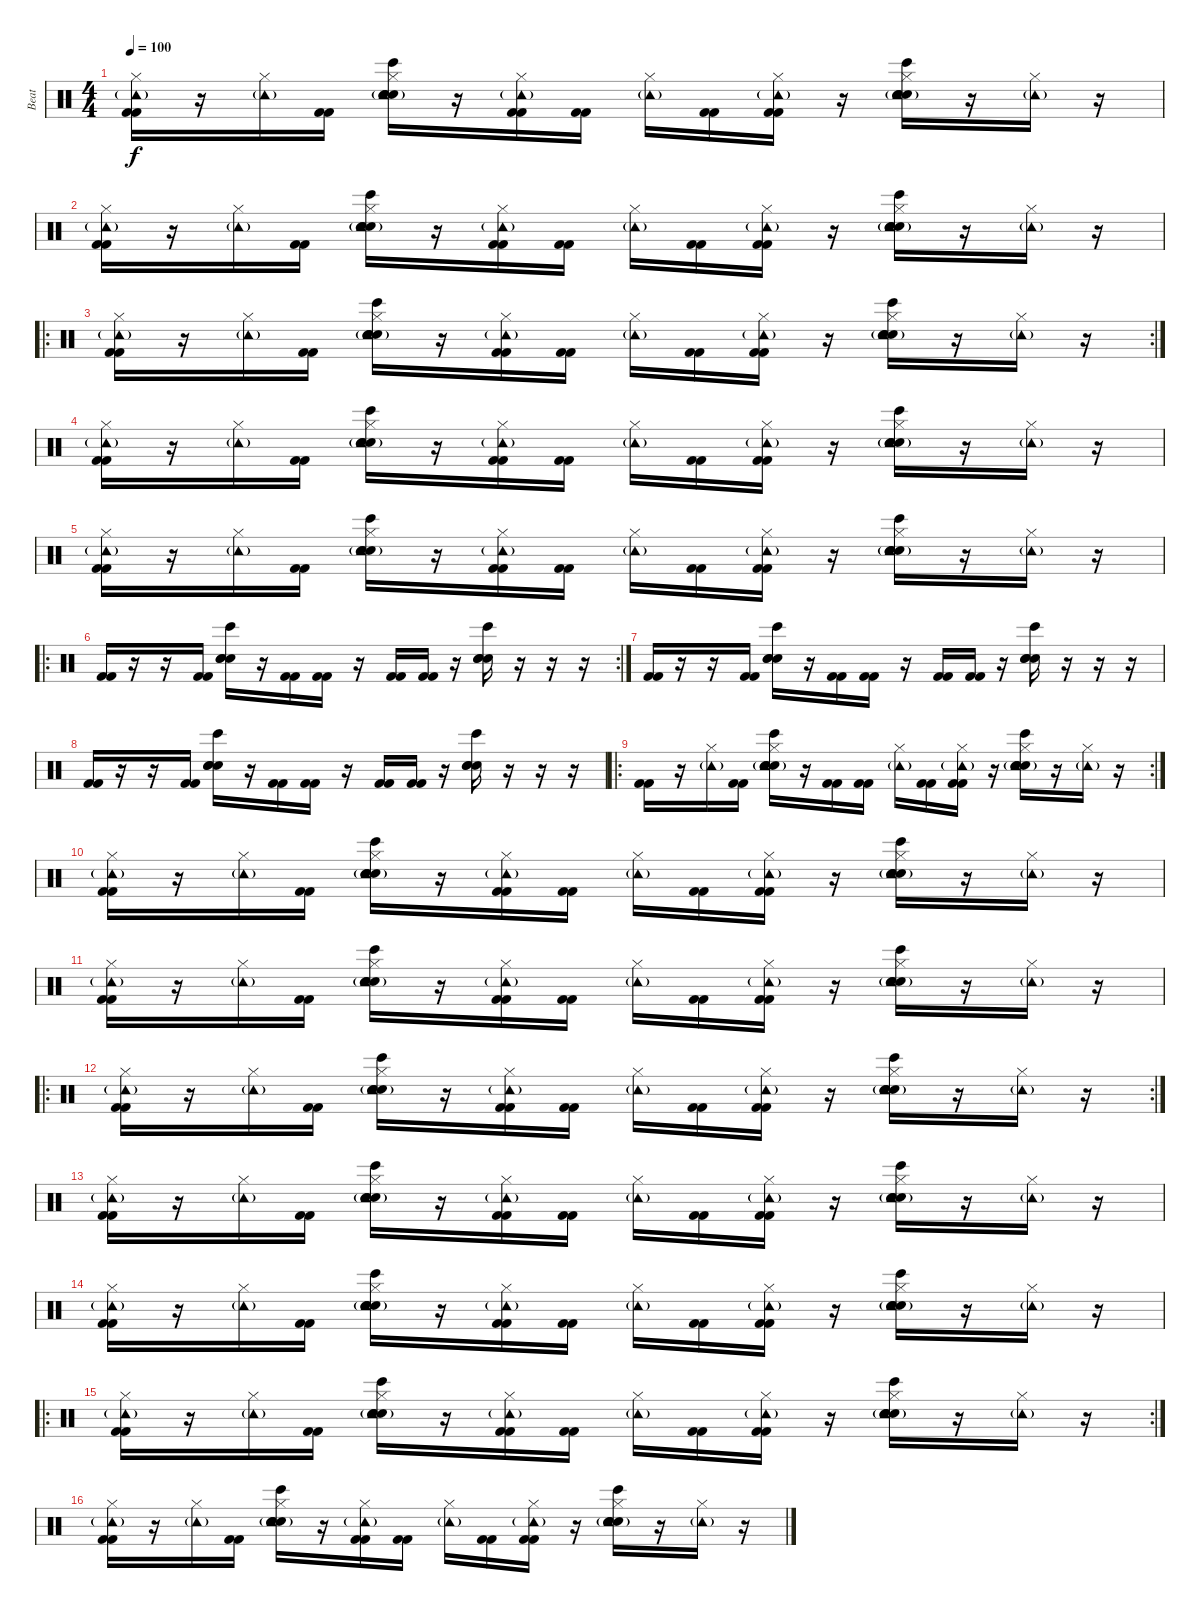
\track ("Beat" "Beat") {instrument percussion}
\staff {score}
\articulation defaults
\ts (4 4)
\tempo 100
\clef neutral
\ks c
("Hi-Hat (closed)" "Tambourine (hit)"{g} "Kick (hit) 2" "Kick (hit) 2").16{dy f} r.16 ("Hi-Hat (closed)" "Tambourine (hit)"{g}).16 ("Kick (hit) 2" "Kick (hit) 2").16 ("Electric Snare (hit)" "Hi-Hat (closed)" "Tambourine (hit)"{g} "Hand Clap (hit)" "Bongo High (hit)" "Hand Clap (hit)").16 r.16 ("Hi-Hat (closed)" "Tambourine (hit)"{g} "Kick (hit) 2" "Kick (hit) 2").16 ("Kick (hit) 2" "Kick (hit) 2").16 ("Hi-Hat (closed)" "Tambourine (hit)"{g}).16 ("Kick (hit) 2" "Kick (hit) 2").16 ("Hi-Hat (closed)" "Tambourine (hit)"{g} "Kick (hit) 2" "Kick (hit) 2").16 r.16 ("Electric Snare (hit)" "Hi-Hat (closed)" "Tambourine (hit)"{g} "Hand Clap (hit)" "Bongo High (hit)" "Hand Clap (hit)").16 r.16 ("Hi-Hat (closed)" "Tambourine (hit)"{g}).16 r.16 |
("Hi-Hat (closed)" "Tambourine (hit)"{g} "Kick (hit) 2" "Kick (hit) 2").16 r.16 ("Hi-Hat (closed)" "Tambourine (hit)"{g}).16 ("Kick (hit) 2" "Kick (hit) 2").16 ("Electric Snare (hit)" "Hi-Hat (closed)" "Tambourine (hit)"{g} "Hand Clap (hit)" "Bongo High (hit)" "Hand Clap (hit)").16 r.16 ("Hi-Hat (closed)" "Tambourine (hit)"{g} "Kick (hit) 2" "Kick (hit) 2").16 ("Kick (hit) 2" "Kick (hit) 2").16 ("Hi-Hat (closed)" "Tambourine (hit)"{g}).16 ("Kick (hit) 2" "Kick (hit) 2").16 ("Hi-Hat (closed)" "Tambourine (hit)"{g} "Kick (hit) 2" "Kick (hit) 2").16 r.16 ("Electric Snare (hit)" "Hi-Hat (closed)" "Tambourine (hit)"{g} "Hand Clap (hit)" "Bongo High (hit)" "Hand Clap (hit)").16 r.16 ("Hi-Hat (closed)" "Tambourine (hit)"{g}).16 r.16 |
\ro
\rc 2
("Hi-Hat (closed)" "Tambourine (hit)"{g} "Kick (hit) 2" "Kick (hit) 2").16 r.16 ("Hi-Hat (closed)" "Tambourine (hit)"{g}).16 ("Kick (hit) 2" "Kick (hit) 2").16 ("Electric Snare (hit)" "Hi-Hat (closed)" "Tambourine (hit)"{g} "Hand Clap (hit)" "Bongo High (hit)" "Hand Clap (hit)").16 r.16 ("Hi-Hat (closed)" "Tambourine (hit)"{g} "Kick (hit) 2" "Kick (hit) 2").16 ("Kick (hit) 2" "Kick (hit) 2").16 ("Hi-Hat (closed)" "Tambourine (hit)"{g}).16 ("Kick (hit) 2" "Kick (hit) 2").16 ("Hi-Hat (closed)" "Tambourine (hit)"{g} "Kick (hit) 2" "Kick (hit) 2").16 r.16 ("Electric Snare (hit)" "Hi-Hat (closed)" "Tambourine (hit)"{g} "Hand Clap (hit)" "Bongo High (hit)" "Hand Clap (hit)").16 r.16 ("Hi-Hat (closed)" "Tambourine (hit)"{g}).16 r.16 |
("Hi-Hat (closed)" "Tambourine (hit)"{g} "Kick (hit) 2" "Kick (hit) 2").16 r.16 ("Hi-Hat (closed)" "Tambourine (hit)"{g}).16 ("Kick (hit) 2" "Kick (hit) 2").16 ("Electric Snare (hit)" "Hi-Hat (closed)" "Tambourine (hit)"{g} "Hand Clap (hit)" "Bongo High (hit)" "Hand Clap (hit)").16 r.16 ("Hi-Hat (closed)" "Tambourine (hit)"{g} "Kick (hit) 2" "Kick (hit) 2").16 ("Kick (hit) 2" "Kick (hit) 2").16 ("Hi-Hat (closed)" "Tambourine (hit)"{g}).16 ("Kick (hit) 2" "Kick (hit) 2").16 ("Hi-Hat (closed)" "Tambourine (hit)"{g} "Kick (hit) 2" "Kick (hit) 2").16 r.16 ("Electric Snare (hit)" "Hi-Hat (closed)" "Tambourine (hit)"{g} "Hand Clap (hit)" "Bongo High (hit)" "Hand Clap (hit)").16 r.16 ("Hi-Hat (closed)" "Tambourine (hit)"{g}).16 r.16 |
("Hi-Hat (closed)" "Tambourine (hit)"{g} "Kick (hit) 2" "Kick (hit) 2").16 r.16 ("Hi-Hat (closed)" "Tambourine (hit)"{g}).16 ("Kick (hit) 2" "Kick (hit) 2").16 ("Electric Snare (hit)" "Hi-Hat (closed)" "Tambourine (hit)"{g} "Hand Clap (hit)" "Bongo High (hit)" "Hand Clap (hit)").16 r.16 ("Hi-Hat (closed)" "Tambourine (hit)"{g} "Kick (hit) 2" "Kick (hit) 2").16 ("Kick (hit) 2" "Kick (hit) 2").16 ("Hi-Hat (closed)" "Tambourine (hit)"{g}).16 ("Kick (hit) 2" "Kick (hit) 2").16 ("Hi-Hat (closed)" "Tambourine (hit)"{g} "Kick (hit) 2" "Kick (hit) 2").16 r.16 ("Electric Snare (hit)" "Hi-Hat (closed)" "Tambourine (hit)"{g} "Hand Clap (hit)" "Bongo High (hit)" "Hand Clap (hit)").16 r.16 ("Hi-Hat (closed)" "Tambourine (hit)"{g}).16 r.16 |
\ro
\rc 2
("Kick (hit) 2" "Kick (hit) 2").16 r.16 r.16 ("Kick (hit) 2" "Kick (hit) 2").16 ("Electric Snare (hit)" "Hand Clap (hit)" "Bongo High (hit)" "Hand Clap (hit)").16 r.16 ("Kick (hit) 2" "Kick (hit) 2").16 ("Kick (hit) 2" "Kick (hit) 2").16 r.16 ("Kick (hit) 2" "Kick (hit) 2").16 ("Kick (hit) 2" "Kick (hit) 2").16 r.16 ("Electric Snare (hit)" "Hand Clap (hit)" "Bongo High (hit)" "Hand Clap (hit)").16 r.16 r.16 r.16 |
("Kick (hit) 2" "Kick (hit) 2").16 r.16 r.16 ("Kick (hit) 2" "Kick (hit) 2").16 ("Electric Snare (hit)" "Hand Clap (hit)" "Bongo High (hit)" "Hand Clap (hit)").16 r.16 ("Kick (hit) 2" "Kick (hit) 2").16 ("Kick (hit) 2" "Kick (hit) 2").16 r.16 ("Kick (hit) 2" "Kick (hit) 2").16 ("Kick (hit) 2" "Kick (hit) 2").16 r.16 ("Electric Snare (hit)" "Hand Clap (hit)" "Bongo High (hit)" "Hand Clap (hit)").16 r.16 r.16 r.16 |
("Kick (hit) 2" "Kick (hit) 2").16 r.16 r.16 ("Kick (hit) 2" "Kick (hit) 2").16 ("Electric Snare (hit)" "Hand Clap (hit)" "Bongo High (hit)" "Hand Clap (hit)").16 r.16 ("Kick (hit) 2" "Kick (hit) 2").16 ("Kick (hit) 2" "Kick (hit) 2").16 r.16 ("Kick (hit) 2" "Kick (hit) 2").16 ("Kick (hit) 2" "Kick (hit) 2").16 r.16 ("Electric Snare (hit)" "Hand Clap (hit)" "Bongo High (hit)" "Hand Clap (hit)").16 r.16 r.16 r.16 |
\ro
\rc 2
("Kick (hit) 2" "Kick (hit) 2").16 r.16 ("Hi-Hat (closed)" "Tambourine (hit)"{g}).16 ("Kick (hit) 2" "Kick (hit) 2").16 ("Electric Snare (hit)" "Hi-Hat (closed)" "Tambourine (hit)"{g} "Hand Clap (hit)" "Bongo High (hit)" "Hand Clap (hit)").16 r.16 ("Kick (hit) 2" "Kick (hit) 2").16 ("Kick (hit) 2" "Kick (hit) 2").16 ("Hi-Hat (closed)" "Tambourine (hit)"{g}).16 ("Kick (hit) 2" "Kick (hit) 2").16 ("Hi-Hat (closed)" "Tambourine (hit)"{g} "Kick (hit) 2" "Kick (hit) 2").16 r.16 ("Electric Snare (hit)" "Hi-Hat (closed)" "Tambourine (hit)"{g} "Hand Clap (hit)" "Bongo High (hit)" "Hand Clap (hit)").16 r.16 ("Hi-Hat (closed)" "Tambourine (hit)"{g}).16 r.16 |
("Hi-Hat (closed)" "Tambourine (hit)"{g} "Kick (hit) 2" "Kick (hit) 2").16 r.16 ("Hi-Hat (closed)" "Tambourine (hit)"{g}).16 ("Kick (hit) 2" "Kick (hit) 2").16 ("Electric Snare (hit)" "Hi-Hat (closed)" "Tambourine (hit)"{g} "Hand Clap (hit)" "Bongo High (hit)" "Hand Clap (hit)").16 r.16 ("Hi-Hat (closed)" "Tambourine (hit)"{g} "Kick (hit) 2" "Kick (hit) 2").16 ("Kick (hit) 2" "Kick (hit) 2").16 ("Hi-Hat (closed)" "Tambourine (hit)"{g}).16 ("Kick (hit) 2" "Kick (hit) 2").16 ("Hi-Hat (closed)" "Tambourine (hit)"{g} "Kick (hit) 2" "Kick (hit) 2").16 r.16 ("Electric Snare (hit)" "Hi-Hat (closed)" "Tambourine (hit)"{g} "Hand Clap (hit)" "Bongo High (hit)" "Hand Clap (hit)").16 r.16 ("Hi-Hat (closed)" "Tambourine (hit)"{g}).16 r.16 |
("Hi-Hat (closed)" "Tambourine (hit)"{g} "Kick (hit) 2" "Kick (hit) 2").16 r.16 ("Hi-Hat (closed)" "Tambourine (hit)"{g}).16 ("Kick (hit) 2" "Kick (hit) 2").16 ("Electric Snare (hit)" "Hi-Hat (closed)" "Tambourine (hit)"{g} "Hand Clap (hit)" "Bongo High (hit)" "Hand Clap (hit)").16 r.16 ("Hi-Hat (closed)" "Tambourine (hit)"{g} "Kick (hit) 2" "Kick (hit) 2").16 ("Kick (hit) 2" "Kick (hit) 2").16 ("Hi-Hat (closed)" "Tambourine (hit)"{g}).16 ("Kick (hit) 2" "Kick (hit) 2").16 ("Hi-Hat (closed)" "Tambourine (hit)"{g} "Kick (hit) 2" "Kick (hit) 2").16 r.16 ("Electric Snare (hit)" "Hi-Hat (closed)" "Tambourine (hit)"{g} "Hand Clap (hit)" "Bongo High (hit)" "Hand Clap (hit)").16 r.16 ("Hi-Hat (closed)" "Tambourine (hit)"{g}).16 r.16 |
\ro
\rc 2
("Hi-Hat (closed)" "Tambourine (hit)"{g} "Kick (hit) 2" "Kick (hit) 2").16 r.16 ("Hi-Hat (closed)" "Tambourine (hit)"{g}).16 ("Kick (hit) 2" "Kick (hit) 2").16 ("Electric Snare (hit)" "Hi-Hat (closed)" "Tambourine (hit)"{g} "Hand Clap (hit)" "Bongo High (hit)" "Hand Clap (hit)").16 r.16 ("Hi-Hat (closed)" "Tambourine (hit)"{g} "Kick (hit) 2" "Kick (hit) 2").16 ("Kick (hit) 2" "Kick (hit) 2").16 ("Hi-Hat (closed)" "Tambourine (hit)"{g}).16 ("Kick (hit) 2" "Kick (hit) 2").16 ("Hi-Hat (closed)" "Tambourine (hit)"{g} "Kick (hit) 2" "Kick (hit) 2").16 r.16 ("Electric Snare (hit)" "Hi-Hat (closed)" "Tambourine (hit)"{g} "Hand Clap (hit)" "Bongo High (hit)" "Hand Clap (hit)").16 r.16 ("Hi-Hat (closed)" "Tambourine (hit)"{g}).16 r.16 |
("Hi-Hat (closed)" "Tambourine (hit)"{g} "Kick (hit) 2" "Kick (hit) 2").16 r.16 ("Hi-Hat (closed)" "Tambourine (hit)"{g}).16 ("Kick (hit) 2" "Kick (hit) 2").16 ("Electric Snare (hit)" "Hi-Hat (closed)" "Tambourine (hit)"{g} "Hand Clap (hit)" "Bongo High (hit)" "Hand Clap (hit)").16 r.16 ("Hi-Hat (closed)" "Tambourine (hit)"{g} "Kick (hit) 2" "Kick (hit) 2").16 ("Kick (hit) 2" "Kick (hit) 2").16 ("Hi-Hat (closed)" "Tambourine (hit)"{g}).16 ("Kick (hit) 2" "Kick (hit) 2").16 ("Hi-Hat (closed)" "Tambourine (hit)"{g} "Kick (hit) 2" "Kick (hit) 2").16 r.16 ("Electric Snare (hit)" "Hi-Hat (closed)" "Tambourine (hit)"{g} "Hand Clap (hit)" "Bongo High (hit)" "Hand Clap (hit)").16 r.16 ("Hi-Hat (closed)" "Tambourine (hit)"{g}).16 r.16 |
("Hi-Hat (closed)" "Tambourine (hit)"{g} "Kick (hit) 2" "Kick (hit) 2").16 r.16 ("Hi-Hat (closed)" "Tambourine (hit)"{g}).16 ("Kick (hit) 2" "Kick (hit) 2").16 ("Electric Snare (hit)" "Hi-Hat (closed)" "Tambourine (hit)"{g} "Hand Clap (hit)" "Bongo High (hit)" "Hand Clap (hit)").16 r.16 ("Hi-Hat (closed)" "Tambourine (hit)"{g} "Kick (hit) 2" "Kick (hit) 2").16 ("Kick (hit) 2" "Kick (hit) 2").16 ("Hi-Hat (closed)" "Tambourine (hit)"{g}).16 ("Kick (hit) 2" "Kick (hit) 2").16 ("Hi-Hat (closed)" "Tambourine (hit)"{g} "Kick (hit) 2" "Kick (hit) 2").16 r.16 ("Electric Snare (hit)" "Hi-Hat (closed)" "Tambourine (hit)"{g} "Hand Clap (hit)" "Bongo High (hit)" "Hand Clap (hit)").16 r.16 ("Hi-Hat (closed)" "Tambourine (hit)"{g}).16 r.16 |
\ro
\rc 2
("Hi-Hat (closed)" "Tambourine (hit)"{g} "Kick (hit) 2" "Kick (hit) 2").16 r.16 ("Hi-Hat (closed)" "Tambourine (hit)"{g}).16 ("Kick (hit) 2" "Kick (hit) 2").16 ("Electric Snare (hit)" "Hi-Hat (closed)" "Tambourine (hit)"{g} "Hand Clap (hit)" "Bongo High (hit)" "Hand Clap (hit)").16 r.16 ("Hi-Hat (closed)" "Tambourine (hit)"{g} "Kick (hit) 2" "Kick (hit) 2").16 ("Kick (hit) 2" "Kick (hit) 2").16 ("Hi-Hat (closed)" "Tambourine (hit)"{g}).16 ("Kick (hit) 2" "Kick (hit) 2").16 ("Hi-Hat (closed)" "Tambourine (hit)"{g} "Kick (hit) 2" "Kick (hit) 2").16 r.16 ("Electric Snare (hit)" "Hi-Hat (closed)" "Tambourine (hit)"{g} "Hand Clap (hit)" "Bongo High (hit)" "Hand Clap (hit)").16 r.16 ("Hi-Hat (closed)" "Tambourine (hit)"{g}).16 r.16 |
("Hi-Hat (closed)" "Tambourine (hit)"{g} "Kick (hit) 2" "Kick (hit) 2").16 r.16 ("Hi-Hat (closed)" "Tambourine (hit)"{g}).16 ("Kick (hit) 2" "Kick (hit) 2").16 ("Electric Snare (hit)" "Hi-Hat (closed)" "Tambourine (hit)"{g} "Hand Clap (hit)" "Bongo High (hit)" "Hand Clap (hit)").16 r.16 ("Hi-Hat (closed)" "Tambourine (hit)"{g} "Kick (hit) 2" "Kick (hit) 2").16 ("Kick (hit) 2" "Kick (hit) 2").16 ("Hi-Hat (closed)" "Tambourine (hit)"{g}).16 ("Kick (hit) 2" "Kick (hit) 2").16 ("Hi-Hat (closed)" "Tambourine (hit)"{g} "Kick (hit) 2" "Kick (hit) 2").16 r.16 ("Electric Snare (hit)" "Hi-Hat (closed)" "Tambourine (hit)"{g} "Hand Clap (hit)" "Bongo High (hit)" "Hand Clap (hit)").16 r.16 ("Hi-Hat (closed)" "Tambourine (hit)"{g}).16 r.16
